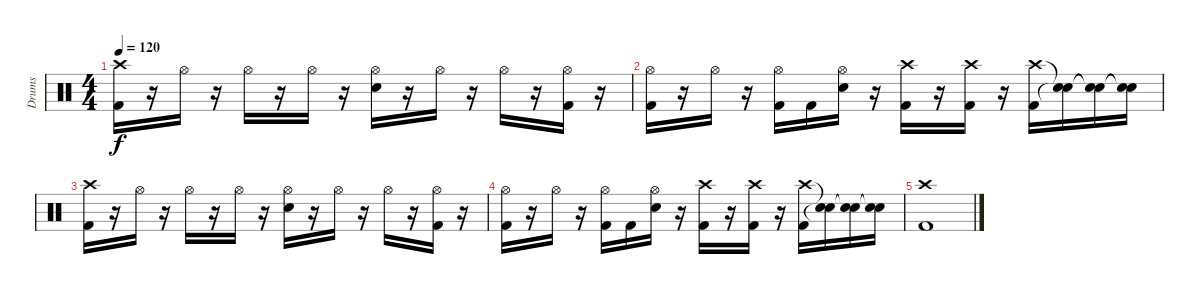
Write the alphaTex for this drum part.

\track ("Drums" "Drums") {instrument percussion}
\staff {score}
\articulation defaults
\ts (4 4)
\tempo 120
\clef neutral
\ks c
("Crash high (hit)" "Kick (hit) 2").16{dy f} r.16 "Hi-Hat (open)".16 r.16 "Hi-Hat (open)".16 r.16 "Hi-Hat (open)".16 r.16 ("Hi-Hat (open)" "Electric Snare (hit)").16 r.16 "Hi-Hat (open)".16 r.16 "Hi-Hat (open)".16 r.16 ("Hi-Hat (open)" "Kick (hit) 2").16 r.16 |
("Hi-Hat (open)" "Kick (hit) 2").16 r.16 "Hi-Hat (open)".16 r.16 ("Hi-Hat (open)" "Kick (hit) 2").16 "Kick (hit) 2".16 ("Hi-Hat (open)" "Electric Snare (hit)").16 r.16 ("Crash high (hit)" "Kick (hit) 2").16 r.16 ("Crash high (hit)" "Kick (hit) 2").16 r.16 ("Crash high (hit)" "Kick (hit) 2").16 ("Snare (hit)"{t} "Snare (hit)"{t}).16 ("Snare (hit)"{t} "Snare (hit)"{t}).16 ("Snare (hit)"{t} "Snare (hit)"{t}).16 |
("Crash high (hit)" "Kick (hit) 2").16 r.16 "Hi-Hat (open)".16 r.16 "Hi-Hat (open)".16 r.16 "Hi-Hat (open)".16 r.16 ("Hi-Hat (open)" "Electric Snare (hit)").16 r.16 "Hi-Hat (open)".16 r.16 "Hi-Hat (open)".16 r.16 ("Hi-Hat (open)" "Kick (hit) 2").16 r.16 |
("Hi-Hat (open)" "Kick (hit) 2").16 r.16 "Hi-Hat (open)".16 r.16 ("Hi-Hat (open)" "Kick (hit) 2").16 "Kick (hit) 2".16 ("Hi-Hat (open)" "Electric Snare (hit)").16 r.16 ("Crash high (hit)" "Kick (hit) 2").16 r.16 ("Crash high (hit)" "Kick (hit) 2").16 r.16 ("Crash high (hit)" "Kick (hit) 2").16 ("Snare (hit)"{t} "Snare (hit)"{t}).16 ("Snare (hit)"{t} "Snare (hit)"{t}).16 ("Snare (hit)"{t} "Snare (hit)"{t}).16 |
("Crash high (hit)" "Kick (hit) 2").1
